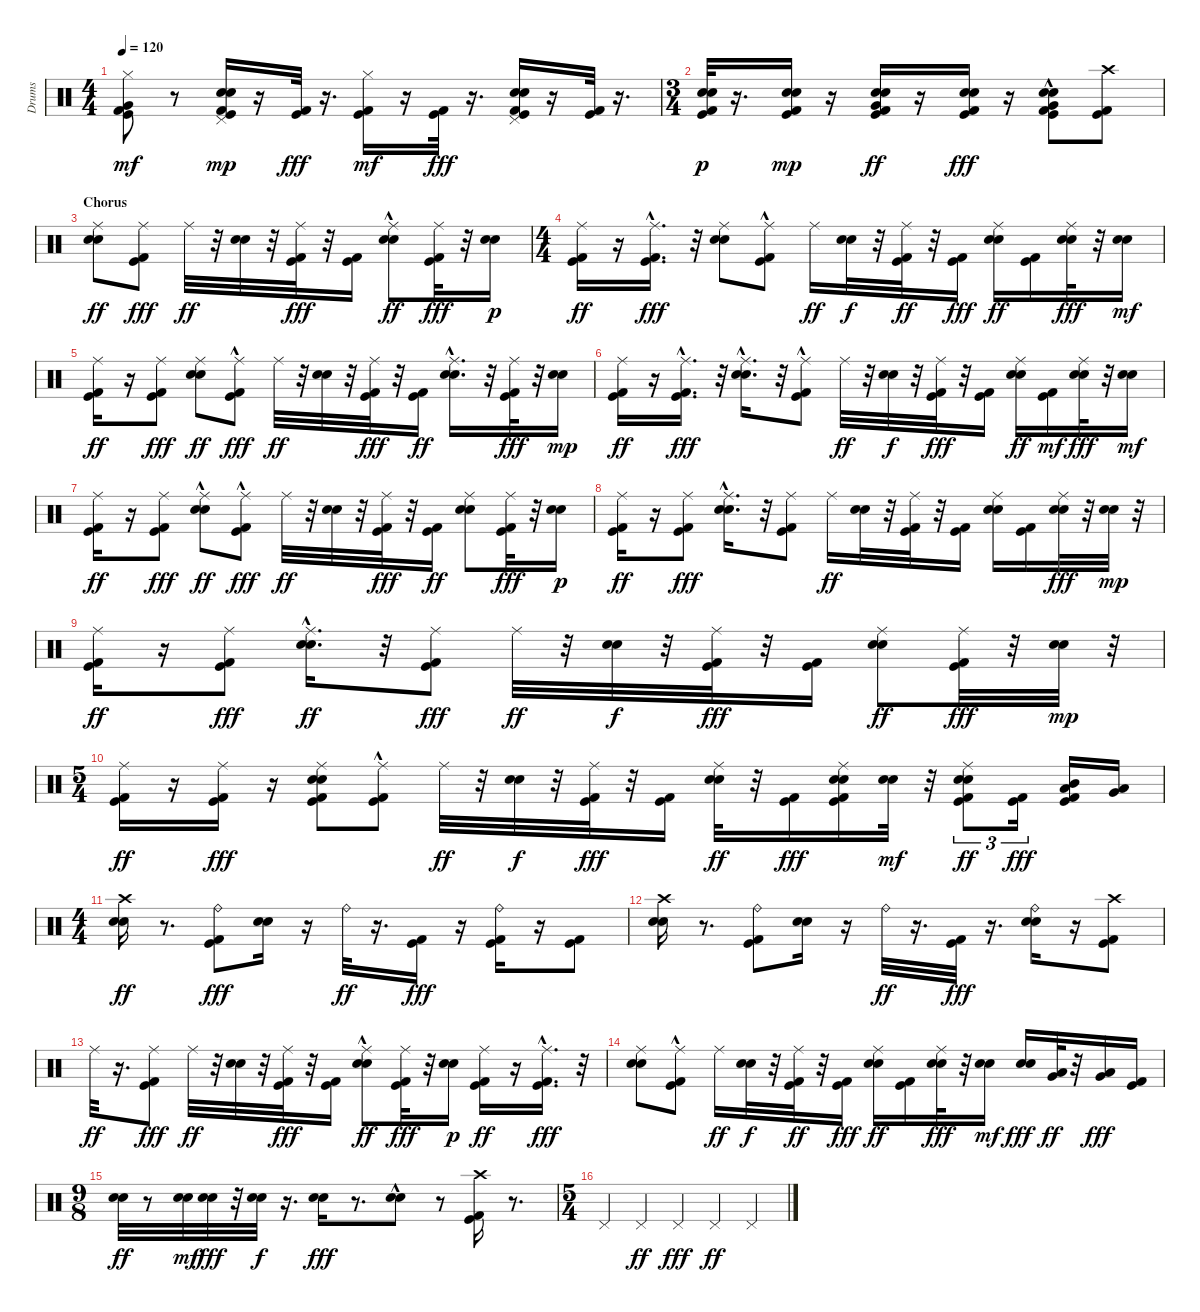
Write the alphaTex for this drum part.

\track ("Drums" "Drums") {instrument percussion}
\staff {score}
\articulation defaults
\ts (4 4)
\tempo 120
\clef neutral
\ks c
("Kick (hit) 2" "Kick (hit)" "Very Low Tom (hit)" "Hi-Hat (closed)").8{dy mf} r.8 ("Snare (hit) 2" "Electric Snare (hit)" "Kick (hit) 2" "Kick (hit)" "Pedal Hi-Hat (hit)").16{dy mp} r.16 ("Kick (hit)" "Kick (hit) 2").32{dy fff} r.16{d} ("Kick (hit)" "Kick (hit) 2" "Hi-Hat (closed)").16{dy mf} r.16 ("Kick (hit)" "Kick (hit) 2").32{dy fff} r.16{d} ("Pedal Hi-Hat (hit)" "Electric Snare (hit)" "Snare (hit) 2" "Kick (hit) 2" "Kick (hit)").16 r.16 ("Kick (hit) 2" "Kick (hit)").32 r.16{d} |
\ts (3 4)
("Electric Snare (hit)" "Kick (hit) 2" "Snare (hit) 2" "Kick (hit)").32{dy p} r.16{d} ("Electric Snare (hit)" "Snare (hit) 2" "Kick (hit)" "Kick (hit) 2").16{dy mp} r.16 ("Very Low Tom (hit)" "Electric Snare (hit)" "Snare (hit) 2" "Kick (hit)" "Kick (hit) 2").16{dy ff} r.16 ("Snare (hit) 2" "Electric Snare (hit)" "Kick (hit) 2" "Kick (hit)").16{dy fff} r.16 ("Very Low Tom (hit)" "Kick (hit) 2" "Kick (hit)" "Snare (hit) 2"{hac} "Electric Snare (hit)").8 ("Kick (hit) 2" "Kick (hit)" "Crash high (hit)").8 |
\section ("" "Chorus")
("Snare (hit) 2" "Electric Snare (hit)" "Ride (middle)").8{dy ff} ("Kick (hit) 2" "Kick (hit)" "Ride (middle)").8{dy fff} "Ride (middle)".32{dy ff} r.32 ("Snare (hit) 2" "Electric Snare (hit)").32 r.32 ("Kick (hit) 2" "Kick (hit)" "Ride (middle)").32{dy fff} r.32 ("Kick (hit) 2" "Kick (hit)").16 ("Electric Snare (hit)" "Snare (hit) 2"{hac} "Ride (middle)").8{dy ff} ("Kick (hit) 2" "Kick (hit)" "Ride (middle)").32{dy fff} r.32 ("Snare (hit) 2" "Electric Snare (hit)").16{dy p} |
\ts (4 4)
("Kick (hit) 2" "Kick (hit)" "Ride (middle)").16{dy ff} r.16 ("Kick (hit) 2"{hac} "Kick (hit)"{hac} "Ride (middle)").16{d dy fff} r.32 ("Snare (hit) 2" "Electric Snare (hit)" "Ride (middle)").8 ("Kick (hit) 2"{hac} "Kick (hit)"{hac} "Ride (middle)").8 "Ride (middle)".16{dy ff} ("Snare (hit) 2" "Electric Snare (hit)").32{dy f} r.32 ("Kick (hit)" "Kick (hit) 2" "Ride (middle)").32{dy ff} r.32 ("Kick (hit) 2" "Kick (hit)").16{dy fff} ("Electric Snare (hit)" "Snare (hit) 2" "Ride (middle)").16{dy ff} ("Kick (hit) 2" "Kick (hit)").16 ("Snare (hit) 2" "Electric Snare (hit)" "Ride (middle)").32{dy fff} r.32 ("Snare (hit) 2" "Electric Snare (hit)").16{dy mf} |
("Kick (hit) 2" "Kick (hit)" "Ride (middle)").16{dy ff} r.16 ("Kick (hit) 2" "Kick (hit)" "Ride (middle)").8{dy fff} ("Snare (hit) 2" "Electric Snare (hit)" "Ride (middle)").8{dy ff} ("Kick (hit)"{hac} "Kick (hit) 2"{hac} "Ride (middle)").8{dy fff} "Ride (middle)".32{dy ff} r.32 ("Snare (hit) 2" "Electric Snare (hit)").32 r.32 ("Kick (hit) 2" "Kick (hit)" "Ride (middle)").32{dy fff} r.32 ("Kick (hit) 2" "Kick (hit)").16{dy ff} ("Snare (hit) 2"{hac} "Electric Snare (hit)"{hac} "Ride (middle)").16{d} r.32 ("Kick (hit) 2" "Kick (hit)" "Ride (middle)").32{dy fff} r.32 ("Snare (hit) 2" "Electric Snare (hit)").16{dy mp} |
("Kick (hit) 2" "Kick (hit)" "Ride (middle)").16{dy ff} r.16 ("Kick (hit) 2"{hac} "Kick (hit)"{hac} "Ride (middle)").16{d dy fff} r.32 ("Snare (hit) 2"{hac} "Electric Snare (hit)"{hac} "Ride (middle)").16{d} r.32 ("Kick (hit)"{hac} "Kick (hit) 2"{hac} "Ride (middle)").8 "Ride (middle)".32{dy ff} r.32 ("Snare (hit) 2" "Electric Snare (hit)").32{dy f} r.32 ("Kick (hit)" "Kick (hit) 2" "Ride (middle)").32{dy fff} r.32 ("Kick (hit) 2" "Kick (hit)").16 ("Electric Snare (hit)" "Snare (hit) 2" "Ride (middle)").16{dy ff} ("Kick (hit) 2" "Kick (hit)").16{dy mf} ("Snare (hit) 2" "Electric Snare (hit)" "Ride (middle)").32{dy fff} r.32 ("Snare (hit) 2" "Electric Snare (hit)").16{dy mf} |
("Kick (hit) 2" "Kick (hit)" "Ride (middle)").16{dy ff} r.16 ("Kick (hit) 2" "Kick (hit)" "Ride (middle)").8{dy fff} ("Electric Snare (hit)" "Snare (hit) 2"{hac} "Ride (middle)").8{dy ff} ("Kick (hit) 2"{hac} "Kick (hit)"{hac} "Ride (middle)").8{dy fff} "Ride (middle)".32{dy ff} r.32 ("Snare (hit) 2" "Electric Snare (hit)").32 r.32 ("Kick (hit) 2" "Kick (hit)" "Ride (middle)").32{dy fff} r.32 ("Kick (hit) 2" "Kick (hit)").16{dy ff} ("Snare (hit) 2" "Electric Snare (hit)" "Ride (middle)").8 ("Kick (hit) 2" "Kick (hit)" "Ride (middle)").32{dy fff} r.32 ("Electric Snare (hit)" "Snare (hit) 2").16{dy p} |
("Kick (hit) 2" "Kick (hit)" "Ride (middle)").16{dy ff} r.16 ("Kick (hit) 2" "Kick (hit)" "Ride (middle)").8{dy fff} ("Snare (hit) 2"{hac} "Electric Snare (hit)"{hac} "Ride (middle)").16{d} r.32 ("Kick (hit) 2" "Kick (hit)" "Ride (middle)").8 "Ride (middle)".16{dy ff} ("Snare (hit) 2" "Electric Snare (hit)").32 r.32 ("Kick (hit) 2" "Kick (hit)" "Ride (middle)").32 r.32 ("Kick (hit) 2" "Kick (hit)").16 ("Electric Snare (hit)" "Snare (hit) 2" "Ride (middle)").16 ("Kick (hit) 2" "Kick (hit)").16 ("Snare (hit) 2" "Electric Snare (hit)" "Ride (middle)").32{dy fff} r.32 ("Snare (hit) 2" "Electric Snare (hit)").32{dy mp} r.32 |
("Kick (hit) 2" "Kick (hit)" "Ride (middle)").16{dy ff} r.16 ("Kick (hit) 2" "Kick (hit)" "Ride (middle)").8{dy fff} ("Snare (hit) 2"{hac} "Electric Snare (hit)"{hac} "Ride (middle)").16{d dy ff} r.32 ("Kick (hit)" "Kick (hit) 2" "Ride (middle)").8{dy fff} "Ride (middle)".32{dy ff} r.32 ("Snare (hit) 2" "Electric Snare (hit)").32{dy f} r.32 ("Kick (hit) 2" "Kick (hit)" "Ride (middle)").32{dy fff} r.32 ("Kick (hit) 2" "Kick (hit)").16 ("Snare (hit) 2" "Electric Snare (hit)" "Ride (middle)").8{dy ff} ("Kick (hit) 2" "Kick (hit)" "Ride (middle)").32{dy fff} r.32 ("Snare (hit) 2" "Electric Snare (hit)").32{dy mp} r.32 |
\ts (5 4)
("Kick (hit) 2" "Kick (hit)" "Ride (middle)").16{dy ff} r.16 ("Kick (hit)" "Kick (hit) 2" "Ride (middle)").16{dy fff} r.16 ("Kick (hit) 2" "Kick (hit)" "Snare (hit) 2" "Electric Snare (hit)" "Ride (middle)").8 ("Kick (hit) 2"{hac} "Kick (hit)"{hac} "Ride (middle)").8 "Ride (middle)".32{dy ff} r.32 ("Snare (hit) 2" "Electric Snare (hit)").32{dy f} r.32 ("Kick (hit) 2" "Kick (hit)" "Ride (middle)").32{dy fff} r.32 ("Kick (hit)" "Kick (hit) 2").16 ("Snare (hit) 2" "Electric Snare (hit)" "Ride (middle)").32{dy ff} r.32 ("Kick (hit) 2" "Kick (hit)").16{dy fff} ("Kick (hit)" "Kick (hit) 2" "Electric Snare (hit)" "Snare (hit) 2" "Ride (middle)").16 ("Snare (hit) 2" "Electric Snare (hit)").32{dy mf} r.32 ("Electric Snare (hit)" "Snare (hit) 2" "Kick (hit)" "Kick (hit) 2" "Ride (middle)").8{tu (3 2) dy ff} ("Kick (hit)" "Kick (hit) 2").16{tu (3 2) dy fff} ("Mid Tom (hit)" "Low Tom (hit)" "Kick (hit) 2" "Kick (hit)").16 ("Low Floor Tom (hit)" "Very Low Tom (hit)").16 |
\ts (4 4)
("Electric Snare (hit)" "Crash high (hit)" "Snare (hit) 2").16{dy ff} r.8{d} ("Ride (bell)" "Kick (hit) 2" "Kick (hit)").8{dy fff} ("Electric Snare (hit)" "Snare (hit) 2").16 r.16 "Ride (bell)".32{dy ff} r.16{d} ("Kick (hit) 2" "Kick (hit)").16{dy fff} r.16 ("Ride (bell)" "Kick (hit) 2" "Kick (hit)").16 r.16 ("Kick (hit) 2" "Kick (hit)").8 |
("Crash high (hit)" "Electric Snare (hit)" "Snare (hit) 2").16 r.8{d} ("Ride (bell)" "Kick (hit) 2" "Kick (hit)").8 ("Electric Snare (hit)" "Snare (hit) 2").16 r.16 "Ride (bell)".32{dy ff} r.16{d} ("Kick (hit)" "Kick (hit) 2").32{dy fff} r.16{d} ("Ride (bell)" "Snare (hit) 2" "Electric Snare (hit)").16 r.16 ("Kick (hit) 2" "Kick (hit)" "Crash high (hit)").8 |
"Ride (middle)".32{dy ff} r.16{d} ("Kick (hit) 2" "Kick (hit)" "Ride (middle)").8{dy fff} "Ride (middle)".32{dy ff} r.32 ("Snare (hit) 2" "Electric Snare (hit)").32 r.32 ("Kick (hit) 2" "Kick (hit)" "Ride (middle)").32{dy fff} r.32 ("Kick (hit) 2" "Kick (hit)").16 ("Electric Snare (hit)" "Snare (hit) 2"{hac} "Ride (middle)").8{dy ff} ("Kick (hit) 2" "Kick (hit)" "Ride (middle)").32{dy fff} r.32 ("Snare (hit) 2" "Electric Snare (hit)").16{dy p} ("Kick (hit) 2" "Kick (hit)" "Ride (middle)").16{dy ff} r.16 ("Kick (hit) 2"{hac} "Kick (hit)"{hac} "Ride (middle)").16{d dy fff} r.32 |
("Snare (hit) 2" "Electric Snare (hit)" "Ride (middle)").8 ("Kick (hit) 2"{hac} "Kick (hit)"{hac} "Ride (middle)").8 "Ride (middle)".16{dy ff} ("Snare (hit) 2" "Electric Snare (hit)").32{dy f} r.32 ("Kick (hit)" "Kick (hit) 2" "Ride (middle)").32{dy ff} r.32 ("Kick (hit) 2" "Kick (hit)").16{dy fff} ("Electric Snare (hit)" "Snare (hit) 2" "Ride (middle)").16{dy ff} ("Kick (hit) 2" "Kick (hit)").16 ("Snare (hit) 2" "Electric Snare (hit)" "Ride (middle)").32{dy fff} r.32 ("Snare (hit) 2" "Electric Snare (hit)").16{dy mf} ("Snare (hit) 2" "Electric Snare (hit)").16{dy fff} ("Very Low Tom (hit)" "Low Tom (hit)").32{dy ff} r.32 ("Very Low Tom (hit)" "Low Floor Tom (hit)").16{dy fff} ("Kick (hit)" "Kick (hit) 2").16 |
\ts (9 8)
("Electric Snare (hit)" "Snare (hit) 2").32{dy ff} r.8 ("Electric Snare (hit)" "Snare (hit) 2").32{dy mf} ("Snare (hit) 2" "Electric Snare (hit)").32{dy fff} r.32 ("Snare (hit) 2" "Electric Snare (hit)").32{dy f} r.16{d} ("Snare (hit) 2" "Electric Snare (hit)").16{dy fff} r.8{d} ("Electric Snare (hit)" "Snare (hit) 2"{hac}).8 r.8 ("Crash high (hit)" "Kick (hit) 2" "Kick (hit)").16 r.8{d} |
\ts (5 4)
"Pedal Hi-Hat (hit)".4 "Pedal Hi-Hat (hit)".4{dy ff} "Pedal Hi-Hat (hit)".4{dy fff} "Pedal Hi-Hat (hit)".4{dy ff} "Pedal Hi-Hat (hit)".4
